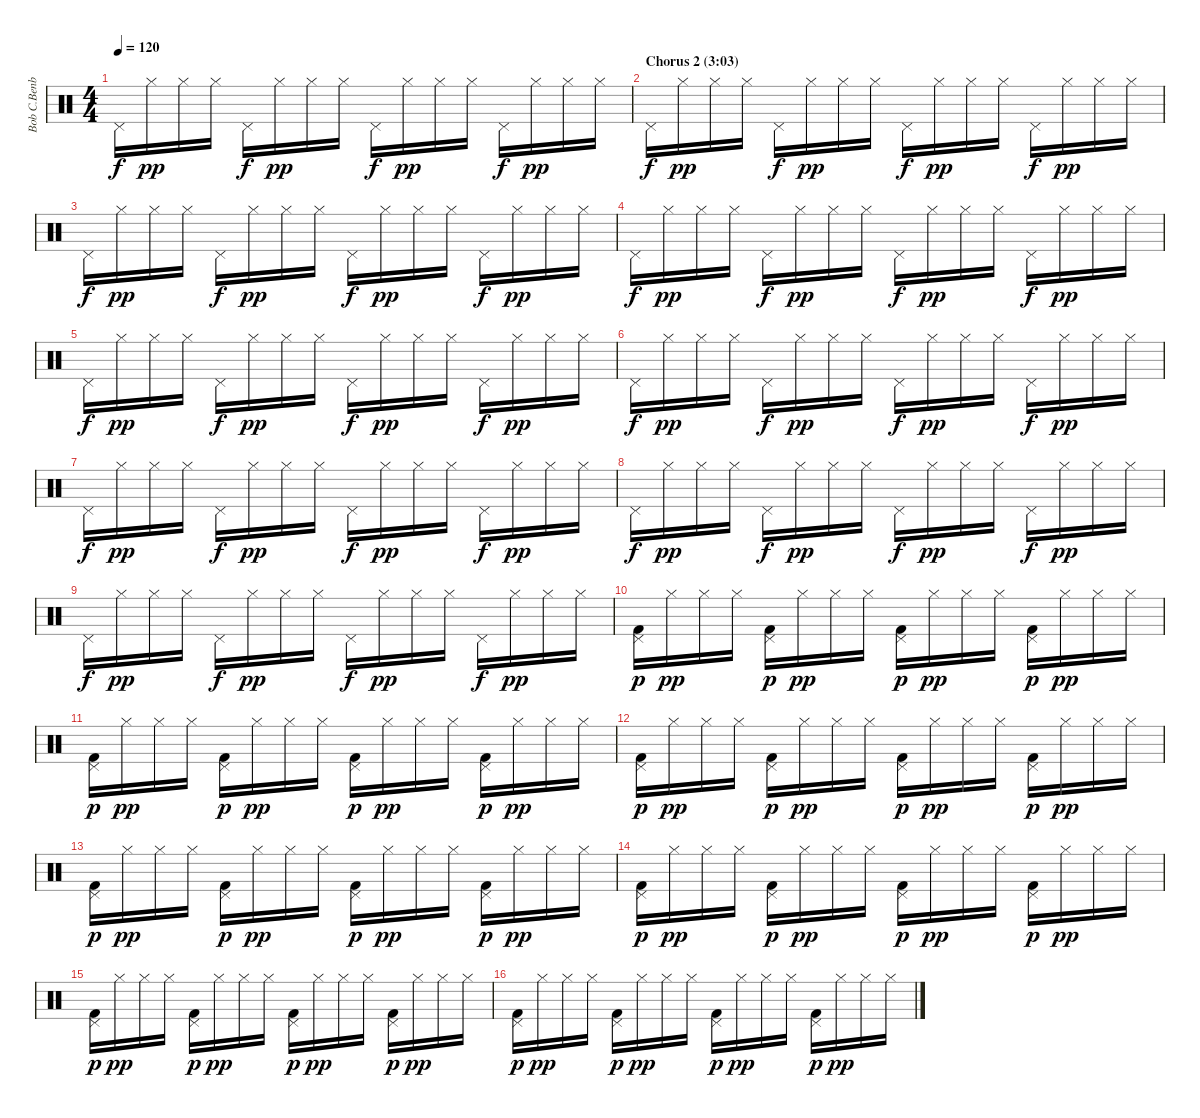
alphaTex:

\track ("Bob C.Benberg (drums)" "Bob C.Benb") {instrument percussion}
\staff {score}
\articulation defaults
\ts (4 4)
\tempo 120
\clef neutral
\ks c "Pedal Hi-Hat (hit)".16{dy f} "Hi-Hat (closed)".16{dy pp} "Hi-Hat (closed)".16 "Hi-Hat (closed)".16 "Pedal Hi-Hat (hit)".16{dy f} "Hi-Hat (closed)".16{dy pp} "Hi-Hat (closed)".16 "Hi-Hat (closed)".16 "Pedal Hi-Hat (hit)".16{dy f} "Hi-Hat (closed)".16{dy pp} "Hi-Hat (closed)".16 "Hi-Hat (closed)".16 "Pedal Hi-Hat (hit)".16{dy f} "Hi-Hat (closed)".16{dy pp} "Hi-Hat (closed)".16 "Hi-Hat (closed)".16
|
\section ("" "Chorus 2 (3:03)")
"Pedal Hi-Hat (hit)".16{dy f} "Hi-Hat (closed)".16{dy pp} "Hi-Hat (closed)".16 "Hi-Hat (closed)".16 "Pedal Hi-Hat (hit)".16{dy f} "Hi-Hat (closed)".16{dy pp} "Hi-Hat (closed)".16 "Hi-Hat (closed)".16 "Pedal Hi-Hat (hit)".16{dy f} "Hi-Hat (closed)".16{dy pp} "Hi-Hat (closed)".16 "Hi-Hat (closed)".16 "Pedal Hi-Hat (hit)".16{dy f} "Hi-Hat (closed)".16{dy pp} "Hi-Hat (closed)".16 "Hi-Hat (closed)".16 |
"Pedal Hi-Hat (hit)".16{dy f} "Hi-Hat (closed)".16{dy pp} "Hi-Hat (closed)".16 "Hi-Hat (closed)".16 "Pedal Hi-Hat (hit)".16{dy f} "Hi-Hat (closed)".16{dy pp} "Hi-Hat (closed)".16 "Hi-Hat (closed)".16 "Pedal Hi-Hat (hit)".16{dy f} "Hi-Hat (closed)".16{dy pp} "Hi-Hat (closed)".16 "Hi-Hat (closed)".16 "Pedal Hi-Hat (hit)".16{dy f} "Hi-Hat (closed)".16{dy pp} "Hi-Hat (closed)".16 "Hi-Hat (closed)".16 |
"Pedal Hi-Hat (hit)".16{dy f} "Hi-Hat (closed)".16{dy pp} "Hi-Hat (closed)".16 "Hi-Hat (closed)".16 "Pedal Hi-Hat (hit)".16{dy f} "Hi-Hat (closed)".16{dy pp} "Hi-Hat (closed)".16 "Hi-Hat (closed)".16 "Pedal Hi-Hat (hit)".16{dy f} "Hi-Hat (closed)".16{dy pp} "Hi-Hat (closed)".16 "Hi-Hat (closed)".16 "Pedal Hi-Hat (hit)".16{dy f} "Hi-Hat (closed)".16{dy pp} "Hi-Hat (closed)".16 "Hi-Hat (closed)".16 |
"Pedal Hi-Hat (hit)".16{dy f} "Hi-Hat (closed)".16{dy pp} "Hi-Hat (closed)".16 "Hi-Hat (closed)".16 "Pedal Hi-Hat (hit)".16{dy f} "Hi-Hat (closed)".16{dy pp} "Hi-Hat (closed)".16 "Hi-Hat (closed)".16 "Pedal Hi-Hat (hit)".16{dy f} "Hi-Hat (closed)".16{dy pp} "Hi-Hat (closed)".16 "Hi-Hat (closed)".16 "Pedal Hi-Hat (hit)".16{dy f} "Hi-Hat (closed)".16{dy pp} "Hi-Hat (closed)".16 "Hi-Hat (closed)".16 |
"Pedal Hi-Hat (hit)".16{dy f} "Hi-Hat (closed)".16{dy pp} "Hi-Hat (closed)".16 "Hi-Hat (closed)".16 "Pedal Hi-Hat (hit)".16{dy f} "Hi-Hat (closed)".16{dy pp} "Hi-Hat (closed)".16 "Hi-Hat (closed)".16 "Pedal Hi-Hat (hit)".16{dy f} "Hi-Hat (closed)".16{dy pp} "Hi-Hat (closed)".16 "Hi-Hat (closed)".16 "Pedal Hi-Hat (hit)".16{dy f} "Hi-Hat (closed)".16{dy pp} "Hi-Hat (closed)".16 "Hi-Hat (closed)".16 |
"Pedal Hi-Hat (hit)".16{dy f} "Hi-Hat (closed)".16{dy pp} "Hi-Hat (closed)".16 "Hi-Hat (closed)".16 "Pedal Hi-Hat (hit)".16{dy f} "Hi-Hat (closed)".16{dy pp} "Hi-Hat (closed)".16 "Hi-Hat (closed)".16 "Pedal Hi-Hat (hit)".16{dy f} "Hi-Hat (closed)".16{dy pp} "Hi-Hat (closed)".16 "Hi-Hat (closed)".16 "Pedal Hi-Hat (hit)".16{dy f} "Hi-Hat (closed)".16{dy pp} "Hi-Hat (closed)".16 "Hi-Hat (closed)".16 |
"Pedal Hi-Hat (hit)".16{dy f} "Hi-Hat (closed)".16{dy pp} "Hi-Hat (closed)".16 "Hi-Hat (closed)".16 "Pedal Hi-Hat (hit)".16{dy f} "Hi-Hat (closed)".16{dy pp} "Hi-Hat (closed)".16 "Hi-Hat (closed)".16 "Pedal Hi-Hat (hit)".16{dy f} "Hi-Hat (closed)".16{dy pp} "Hi-Hat (closed)".16 "Hi-Hat (closed)".16 "Pedal Hi-Hat (hit)".16{dy f} "Hi-Hat (closed)".16{dy pp} "Hi-Hat (closed)".16 "Hi-Hat (closed)".16 |
"Pedal Hi-Hat (hit)".16{dy f} "Hi-Hat (closed)".16{dy pp} "Hi-Hat (closed)".16 "Hi-Hat (closed)".16 "Pedal Hi-Hat (hit)".16{dy f} "Hi-Hat (closed)".16{dy pp} "Hi-Hat (closed)".16 "Hi-Hat (closed)".16 "Pedal Hi-Hat (hit)".16{dy f} "Hi-Hat (closed)".16{dy pp} "Hi-Hat (closed)".16 "Hi-Hat (closed)".16 "Pedal Hi-Hat (hit)".16{dy f} "Hi-Hat (closed)".16{dy pp} "Hi-Hat (closed)".16 "Hi-Hat (closed)".16 |
("Pedal Hi-Hat (hit)" "Kick (hit) 2").16{dy p} "Hi-Hat (closed)".16{dy pp} "Hi-Hat (closed)".16 "Hi-Hat (closed)".16 ("Pedal Hi-Hat (hit)" "Kick (hit) 2").16{dy p} "Hi-Hat (closed)".16{dy pp} "Hi-Hat (closed)".16 "Hi-Hat (closed)".16 ("Pedal Hi-Hat (hit)" "Kick (hit) 2").16{dy p} "Hi-Hat (closed)".16{dy pp} "Hi-Hat (closed)".16 "Hi-Hat (closed)".16 ("Pedal Hi-Hat (hit)" "Kick (hit) 2").16{dy p} "Hi-Hat (closed)".16{dy pp} "Hi-Hat (closed)".16 "Hi-Hat (closed)".16 |
("Pedal Hi-Hat (hit)" "Kick (hit) 2").16{dy p} "Hi-Hat (closed)".16{dy pp} "Hi-Hat (closed)".16 "Hi-Hat (closed)".16 ("Pedal Hi-Hat (hit)" "Kick (hit) 2").16{dy p} "Hi-Hat (closed)".16{dy pp} "Hi-Hat (closed)".16 "Hi-Hat (closed)".16 ("Pedal Hi-Hat (hit)" "Kick (hit) 2").16{dy p} "Hi-Hat (closed)".16{dy pp} "Hi-Hat (closed)".16 "Hi-Hat (closed)".16 ("Pedal Hi-Hat (hit)" "Kick (hit) 2").16{dy p} "Hi-Hat (closed)".16{dy pp} "Hi-Hat (closed)".16 "Hi-Hat (closed)".16 |
("Pedal Hi-Hat (hit)" "Kick (hit) 2").16{dy p} "Hi-Hat (closed)".16{dy pp} "Hi-Hat (closed)".16 "Hi-Hat (closed)".16 ("Pedal Hi-Hat (hit)" "Kick (hit) 2").16{dy p} "Hi-Hat (closed)".16{dy pp} "Hi-Hat (closed)".16 "Hi-Hat (closed)".16 ("Pedal Hi-Hat (hit)" "Kick (hit) 2").16{dy p} "Hi-Hat (closed)".16{dy pp} "Hi-Hat (closed)".16 "Hi-Hat (closed)".16 ("Pedal Hi-Hat (hit)" "Kick (hit) 2").16{dy p} "Hi-Hat (closed)".16{dy pp} "Hi-Hat (closed)".16 "Hi-Hat (closed)".16 |
("Pedal Hi-Hat (hit)" "Kick (hit) 2").16{dy p} "Hi-Hat (closed)".16{dy pp} "Hi-Hat (closed)".16 "Hi-Hat (closed)".16 ("Pedal Hi-Hat (hit)" "Kick (hit) 2").16{dy p} "Hi-Hat (closed)".16{dy pp} "Hi-Hat (closed)".16 "Hi-Hat (closed)".16 ("Pedal Hi-Hat (hit)" "Kick (hit) 2").16{dy p} "Hi-Hat (closed)".16{dy pp} "Hi-Hat (closed)".16 "Hi-Hat (closed)".16 ("Pedal Hi-Hat (hit)" "Kick (hit) 2").16{dy p} "Hi-Hat (closed)".16{dy pp} "Hi-Hat (closed)".16 "Hi-Hat (closed)".16 |
("Pedal Hi-Hat (hit)" "Kick (hit) 2").16{dy p} "Hi-Hat (closed)".16{dy pp} "Hi-Hat (closed)".16 "Hi-Hat (closed)".16 ("Pedal Hi-Hat (hit)" "Kick (hit) 2").16{dy p} "Hi-Hat (closed)".16{dy pp} "Hi-Hat (closed)".16 "Hi-Hat (closed)".16 ("Pedal Hi-Hat (hit)" "Kick (hit) 2").16{dy p} "Hi-Hat (closed)".16{dy pp} "Hi-Hat (closed)".16 "Hi-Hat (closed)".16 ("Pedal Hi-Hat (hit)" "Kick (hit) 2").16{dy p} "Hi-Hat (closed)".16{dy pp} "Hi-Hat (closed)".16 "Hi-Hat (closed)".16 |
("Pedal Hi-Hat (hit)" "Kick (hit) 2").16{dy p} "Hi-Hat (closed)".16{dy pp} "Hi-Hat (closed)".16 "Hi-Hat (closed)".16 ("Pedal Hi-Hat (hit)" "Kick (hit) 2").16{dy p} "Hi-Hat (closed)".16{dy pp} "Hi-Hat (closed)".16 "Hi-Hat (closed)".16 ("Pedal Hi-Hat (hit)" "Kick (hit) 2").16{dy p} "Hi-Hat (closed)".16{dy pp} "Hi-Hat (closed)".16 "Hi-Hat (closed)".16 ("Pedal Hi-Hat (hit)" "Kick (hit) 2").16{dy p} "Hi-Hat (closed)".16{dy pp} "Hi-Hat (closed)".16 "Hi-Hat (closed)".16 |
("Pedal Hi-Hat (hit)" "Kick (hit) 2").16{dy p} "Hi-Hat (closed)".16{dy pp} "Hi-Hat (closed)".16 "Hi-Hat (closed)".16 ("Pedal Hi-Hat (hit)" "Kick (hit) 2").16{dy p} "Hi-Hat (closed)".16{dy pp} "Hi-Hat (closed)".16 "Hi-Hat (closed)".16 ("Pedal Hi-Hat (hit)" "Kick (hit) 2").16{dy p} "Hi-Hat (closed)".16{dy pp} "Hi-Hat (closed)".16 "Hi-Hat (closed)".16 ("Pedal Hi-Hat (hit)" "Kick (hit) 2").16{dy p} "Hi-Hat (closed)".16{dy pp} "Hi-Hat (closed)".16 "Hi-Hat (closed)".16
